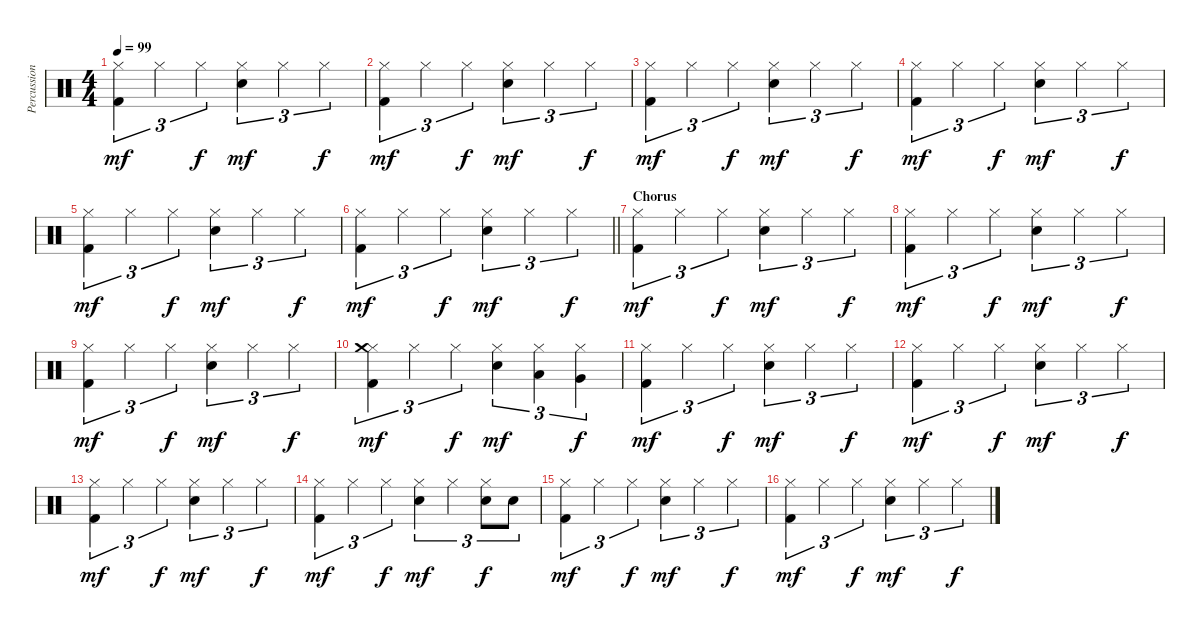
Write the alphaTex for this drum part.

\track ("Percussion" "Percussion") {instrument percussion}
\staff {score}
\articulation defaults
\ts (4 4)
\tempo 99
\clef neutral
\ks c
("Hi-Hat (closed)" "Kick (hit) 2").4{tu (3 2) dy mf} "Hi-Hat (closed)".4{tu (3 2)} "Hi-Hat (closed)".4{tu (3 2) dy f} ("Hi-Hat (closed)" "Electric Snare (hit)").4{tu (3 2) dy mf} "Hi-Hat (closed)".4{tu (3 2)} "Hi-Hat (closed)".4{tu (3 2) dy f} |
("Hi-Hat (closed)" "Kick (hit) 2").4{tu (3 2) dy mf} "Hi-Hat (closed)".4{tu (3 2)} "Hi-Hat (closed)".4{tu (3 2) dy f} ("Hi-Hat (closed)" "Electric Snare (hit)").4{tu (3 2) dy mf} "Hi-Hat (closed)".4{tu (3 2)} "Hi-Hat (closed)".4{tu (3 2) dy f} |
("Hi-Hat (closed)" "Kick (hit) 2").4{tu (3 2) dy mf} "Hi-Hat (closed)".4{tu (3 2)} "Hi-Hat (closed)".4{tu (3 2) dy f} ("Hi-Hat (closed)" "Electric Snare (hit)").4{tu (3 2) dy mf} "Hi-Hat (closed)".4{tu (3 2)} "Hi-Hat (closed)".4{tu (3 2) dy f} |
("Hi-Hat (closed)" "Kick (hit) 2").4{tu (3 2) dy mf} "Hi-Hat (closed)".4{tu (3 2)} "Hi-Hat (closed)".4{tu (3 2) dy f} ("Hi-Hat (closed)" "Electric Snare (hit)").4{tu (3 2) dy mf} "Hi-Hat (closed)".4{tu (3 2)} "Hi-Hat (closed)".4{tu (3 2) dy f} |
("Hi-Hat (closed)" "Kick (hit) 2").4{tu (3 2) dy mf} "Hi-Hat (closed)".4{tu (3 2)} "Hi-Hat (closed)".4{tu (3 2) dy f} ("Hi-Hat (closed)" "Electric Snare (hit)").4{tu (3 2) dy mf} "Hi-Hat (closed)".4{tu (3 2)} "Hi-Hat (closed)".4{tu (3 2) dy f} |
\barLineRight lightlight
("Hi-Hat (closed)" "Kick (hit) 2").4{tu (3 2) dy mf} "Hi-Hat (closed)".4{tu (3 2)} "Hi-Hat (closed)".4{tu (3 2) dy f} ("Hi-Hat (closed)" "Electric Snare (hit)").4{tu (3 2) dy mf} "Hi-Hat (closed)".4{tu (3 2)} "Hi-Hat (closed)".4{tu (3 2) dy f} |
\section ("" "Chorus")
("Hi-Hat (closed)" "Kick (hit) 2").4{tu (3 2) dy mf} "Hi-Hat (closed)".4{tu (3 2)} "Hi-Hat (closed)".4{tu (3 2) dy f} ("Hi-Hat (closed)" "Electric Snare (hit)").4{tu (3 2) dy mf} "Hi-Hat (closed)".4{tu (3 2)} "Hi-Hat (closed)".4{tu (3 2) dy f} |
("Hi-Hat (closed)" "Kick (hit) 2").4{tu (3 2) dy mf} "Hi-Hat (closed)".4{tu (3 2)} "Hi-Hat (closed)".4{tu (3 2) dy f} ("Hi-Hat (closed)" "Electric Snare (hit)").4{tu (3 2) dy mf} "Hi-Hat (closed)".4{tu (3 2)} "Hi-Hat (closed)".4{tu (3 2) dy f} |
("Hi-Hat (closed)" "Kick (hit) 2").4{tu (3 2) dy mf} "Hi-Hat (closed)".4{tu (3 2)} "Hi-Hat (closed)".4{tu (3 2) dy f} ("Hi-Hat (closed)" "Electric Snare (hit)").4{tu (3 2) dy mf} "Hi-Hat (closed)".4{tu (3 2)} "Hi-Hat (closed)".4{tu (3 2) dy f} |
("Hi-Hat (closed)" "Crash medium (hit)" "Kick (hit) 2").4{tu (3 2) dy mf} "Hi-Hat (closed)".4{tu (3 2)} "Hi-Hat (closed)".4{tu (3 2) dy f} ("Hi-Hat (closed)" "Electric Snare (hit)").4{tu (3 2) dy mf} ("Hi-Hat (closed)" "Low Tom (hit)").4{tu (3 2)} ("Hi-Hat (closed)" "Very Low Tom (hit)").4{tu (3 2) dy f} |
("Hi-Hat (closed)" "Kick (hit) 2").4{tu (3 2) dy mf} "Hi-Hat (closed)".4{tu (3 2)} "Hi-Hat (closed)".4{tu (3 2) dy f} ("Hi-Hat (closed)" "Electric Snare (hit)").4{tu (3 2) dy mf} "Hi-Hat (closed)".4{tu (3 2)} "Hi-Hat (closed)".4{tu (3 2) dy f} |
("Hi-Hat (closed)" "Kick (hit) 2").4{tu (3 2) dy mf} "Hi-Hat (closed)".4{tu (3 2)} "Hi-Hat (closed)".4{tu (3 2) dy f} ("Hi-Hat (closed)" "Electric Snare (hit)").4{tu (3 2) dy mf} "Hi-Hat (closed)".4{tu (3 2)} "Hi-Hat (closed)".4{tu (3 2) dy f} |
("Hi-Hat (closed)" "Kick (hit) 2").4{tu (3 2) dy mf} "Hi-Hat (closed)".4{tu (3 2)} "Hi-Hat (closed)".4{tu (3 2) dy f} ("Hi-Hat (closed)" "Electric Snare (hit)").4{tu (3 2) dy mf} "Hi-Hat (closed)".4{tu (3 2)} "Hi-Hat (closed)".4{tu (3 2) dy f} |
("Hi-Hat (closed)" "Kick (hit) 2").4{tu (3 2) dy mf} "Hi-Hat (closed)".4{tu (3 2)} "Hi-Hat (closed)".4{tu (3 2) dy f} ("Hi-Hat (closed)" "Electric Snare (hit)").4{tu (3 2) dy mf} "Hi-Hat (closed)".4{tu (3 2)} ("Hi-Hat (closed)" "Electric Snare (hit)").8{tu (3 2) dy f} "Electric Snare (hit)".8{tu (3 2)} |
("Hi-Hat (closed)" "Kick (hit) 2").4{tu (3 2) dy mf} "Hi-Hat (closed)".4{tu (3 2)} "Hi-Hat (closed)".4{tu (3 2) dy f} ("Hi-Hat (closed)" "Electric Snare (hit)").4{tu (3 2) dy mf} "Hi-Hat (closed)".4{tu (3 2)} "Hi-Hat (closed)".4{tu (3 2) dy f} |
("Hi-Hat (closed)" "Kick (hit) 2").4{tu (3 2) dy mf} "Hi-Hat (closed)".4{tu (3 2)} "Hi-Hat (closed)".4{tu (3 2) dy f} ("Hi-Hat (closed)" "Electric Snare (hit)").4{tu (3 2) dy mf} "Hi-Hat (closed)".4{tu (3 2)} "Hi-Hat (closed)".4{tu (3 2) dy f}
